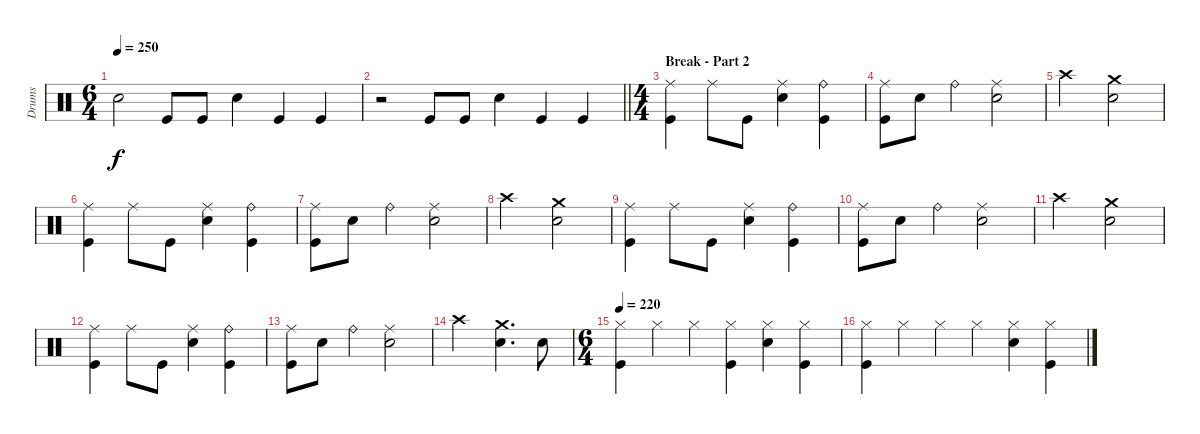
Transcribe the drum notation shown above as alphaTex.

\track ("Drums" "Drums") {instrument percussion}
\staff {score}
\articulation defaults
\ts (6 4)
\tempo 250
\clef neutral
\ks c "Snare (hit) 2".2{dy f} "Kick (hit)".8 "Kick (hit)".8 "Snare (hit) 2".4 "Kick (hit)".4 "Kick (hit)".4
|
\barLineRight lightlight
r.2 "Kick (hit)".8 "Kick (hit)".8 "Snare (hit) 2".4 "Kick (hit)".4 "Kick (hit)".4 |
\ts (4 4)
\section ("" "Break - Part 2")
("Ride (middle)" "Kick (hit)").4 "Ride (middle)".8 "Kick (hit)".8 ("Ride (middle)" "Snare (hit) 2").4 ("Ride (bell)" "Kick (hit)").4 |
("Ride (middle)" "Kick (hit)").8 "Snare (hit) 2".8 "Ride (bell)".4 ("Ride (middle)" "Snare (hit) 2").2 |
"Crash high (hit)".2 ("Crash medium (hit)" "Snare (hit) 2").2 |
("Ride (middle)" "Kick (hit)").4 "Ride (middle)".8 "Kick (hit)".8 ("Ride (middle)" "Snare (hit) 2").4 ("Ride (bell)" "Kick (hit)").4 |
("Ride (middle)" "Kick (hit)").8 "Snare (hit) 2".8 "Ride (bell)".4 ("Ride (middle)" "Snare (hit) 2").2 |
"Crash high (hit)".2 ("Crash medium (hit)" "Snare (hit) 2").2 |
("Ride (middle)" "Kick (hit)").4 "Ride (middle)".8 "Kick (hit)".8 ("Ride (middle)" "Snare (hit) 2").4 ("Ride (bell)" "Kick (hit)").4 |
("Ride (middle)" "Kick (hit)").8 "Snare (hit) 2".8 "Ride (bell)".4 ("Ride (middle)" "Snare (hit) 2").2 |
"Crash high (hit)".2 ("Crash medium (hit)" "Snare (hit) 2").2 |
("Ride (middle)" "Kick (hit)").4 "Ride (middle)".8 "Kick (hit)".8 ("Ride (middle)" "Snare (hit) 2").4 ("Ride (bell)" "Kick (hit)").4 |
("Ride (middle)" "Kick (hit)").8 "Snare (hit) 2".8 "Ride (bell)".4 ("Ride (middle)" "Snare (hit) 2").2 |
"Crash high (hit)".2 ("Crash medium (hit)" "Snare (hit) 2").4{d} "Snare (hit) 2".8 |
\ts (6 4)
\tempo 220
("Hi-Hat (closed)" "Kick (hit)").4 "Hi-Hat (closed)".4 "Hi-Hat (closed)".4 ("Hi-Hat (closed)" "Kick (hit)").4 ("Hi-Hat (closed)" "Snare (hit) 2").4 ("Hi-Hat (closed)" "Kick (hit)").4 |
("Hi-Hat (closed)" "Kick (hit)").4 "Hi-Hat (closed)".4 "Hi-Hat (closed)".4 "Hi-Hat (closed)".4 ("Hi-Hat (closed)" "Snare (hit) 2").4 ("Hi-Hat (closed)" "Kick (hit)").4
